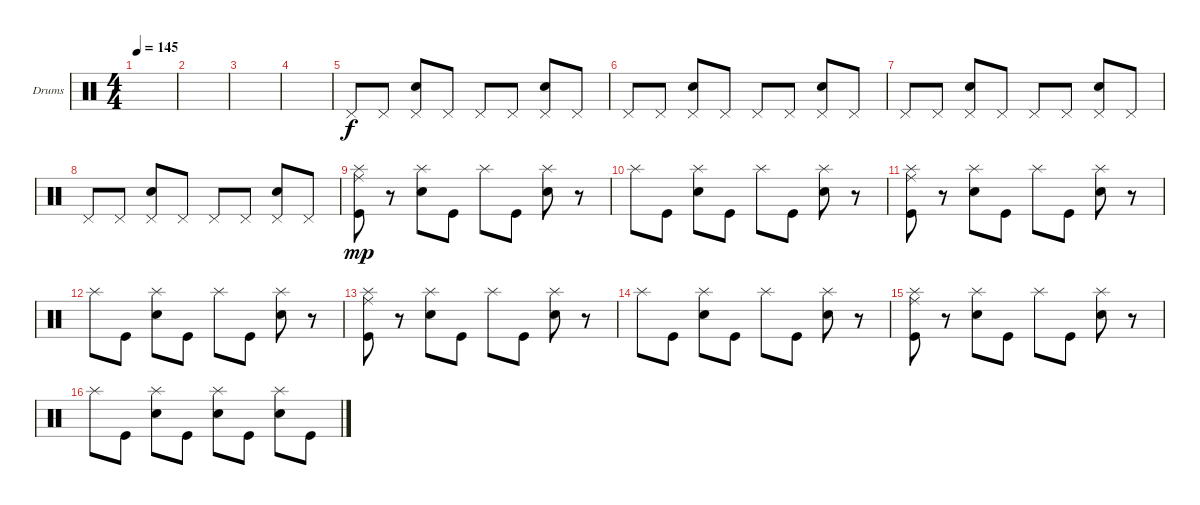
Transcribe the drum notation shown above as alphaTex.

\defaultSystemsLayout 4
\bracketExtendMode groupsimilarinstruments
\firstSystemTrackNameOrientation horizontal
\otherSystemsTrackNameOrientation horizontal
\track ("Drumkit" "Drums") {instrument percussion}
\staff {score}
\articulation defaults
\ts (4 4)
\tempo 145
\clef neutral
\ks c
|
|
|
|
"Pedal Hi-Hat (hit)".8 "Pedal Hi-Hat (hit)".8 ("Pedal Hi-Hat (hit)" "Snare (hit) 2").8 "Pedal Hi-Hat (hit)".8 "Pedal Hi-Hat (hit)".8 "Pedal Hi-Hat (hit)".8 ("Pedal Hi-Hat (hit)" "Snare (hit) 2").8 "Pedal Hi-Hat (hit)".8 |
"Pedal Hi-Hat (hit)".8 "Pedal Hi-Hat (hit)".8 ("Pedal Hi-Hat (hit)" "Snare (hit) 2").8 "Pedal Hi-Hat (hit)".8 "Pedal Hi-Hat (hit)".8 "Pedal Hi-Hat (hit)".8 ("Pedal Hi-Hat (hit)" "Snare (hit) 2").8 "Pedal Hi-Hat (hit)".8 |
"Pedal Hi-Hat (hit)".8 "Pedal Hi-Hat (hit)".8 ("Pedal Hi-Hat (hit)" "Snare (hit) 2").8 "Pedal Hi-Hat (hit)".8 "Pedal Hi-Hat (hit)".8 "Pedal Hi-Hat (hit)".8 ("Pedal Hi-Hat (hit)" "Snare (hit) 2").8 "Pedal Hi-Hat (hit)".8 |
"Pedal Hi-Hat (hit)".8 "Pedal Hi-Hat (hit)".8 ("Pedal Hi-Hat (hit)" "Snare (hit) 2").8 "Pedal Hi-Hat (hit)".8 "Pedal Hi-Hat (hit)".8 "Pedal Hi-Hat (hit)".8 ("Pedal Hi-Hat (hit)" "Snare (hit) 2").8 "Pedal Hi-Hat (hit)".8 |
("Kick (hit)" "Ride (middle)" "Splash (hit)").8{dy mp} r.8 ("Snare (hit) 2" "Splash (hit)").8 "Kick (hit)".8 "Splash (hit)".8 "Kick (hit)".8 ("Snare (hit) 2" "Splash (hit)").8 r.8 |
"Splash (hit)".8 "Kick (hit)".8 ("Snare (hit) 2" "Splash (hit)").8 "Kick (hit)".8 "Splash (hit)".8 "Kick (hit)".8 ("Snare (hit) 2" "Splash (hit)").8 r.8 |
("Kick (hit)" "Ride (middle)" "Splash (hit)").8 r.8 ("Snare (hit) 2" "Splash (hit)").8 "Kick (hit)".8 "Splash (hit)".8 "Kick (hit)".8 ("Snare (hit) 2" "Splash (hit)").8 r.8 |
"Splash (hit)".8 "Kick (hit)".8 ("Snare (hit) 2" "Splash (hit)").8 "Kick (hit)".8 "Splash (hit)".8 "Kick (hit)".8 ("Snare (hit) 2" "Splash (hit)").8 r.8 |
("Kick (hit)" "Ride (middle)" "Splash (hit)").8 r.8 ("Snare (hit) 2" "Splash (hit)").8 "Kick (hit)".8 "Splash (hit)".8 "Kick (hit)".8 ("Snare (hit) 2" "Splash (hit)").8 r.8 |
"Splash (hit)".8 "Kick (hit)".8 ("Snare (hit) 2" "Splash (hit)").8 "Kick (hit)".8 "Splash (hit)".8 "Kick (hit)".8 ("Snare (hit) 2" "Splash (hit)").8 r.8 |
("Kick (hit)" "Ride (middle)" "Splash (hit)").8 r.8 ("Snare (hit) 2" "Splash (hit)").8 "Kick (hit)".8 "Splash (hit)".8 "Kick (hit)".8 ("Snare (hit) 2" "Splash (hit)").8 r.8 |
"Splash (hit)".8 "Kick (hit)".8 ("Snare (hit) 2" "Splash (hit)").8 "Kick (hit)".8 ("Splash (hit)" "Snare (hit) 2").8 "Kick (hit)".8 ("Snare (hit) 2" "Splash (hit)").8 "Kick (hit)".8
